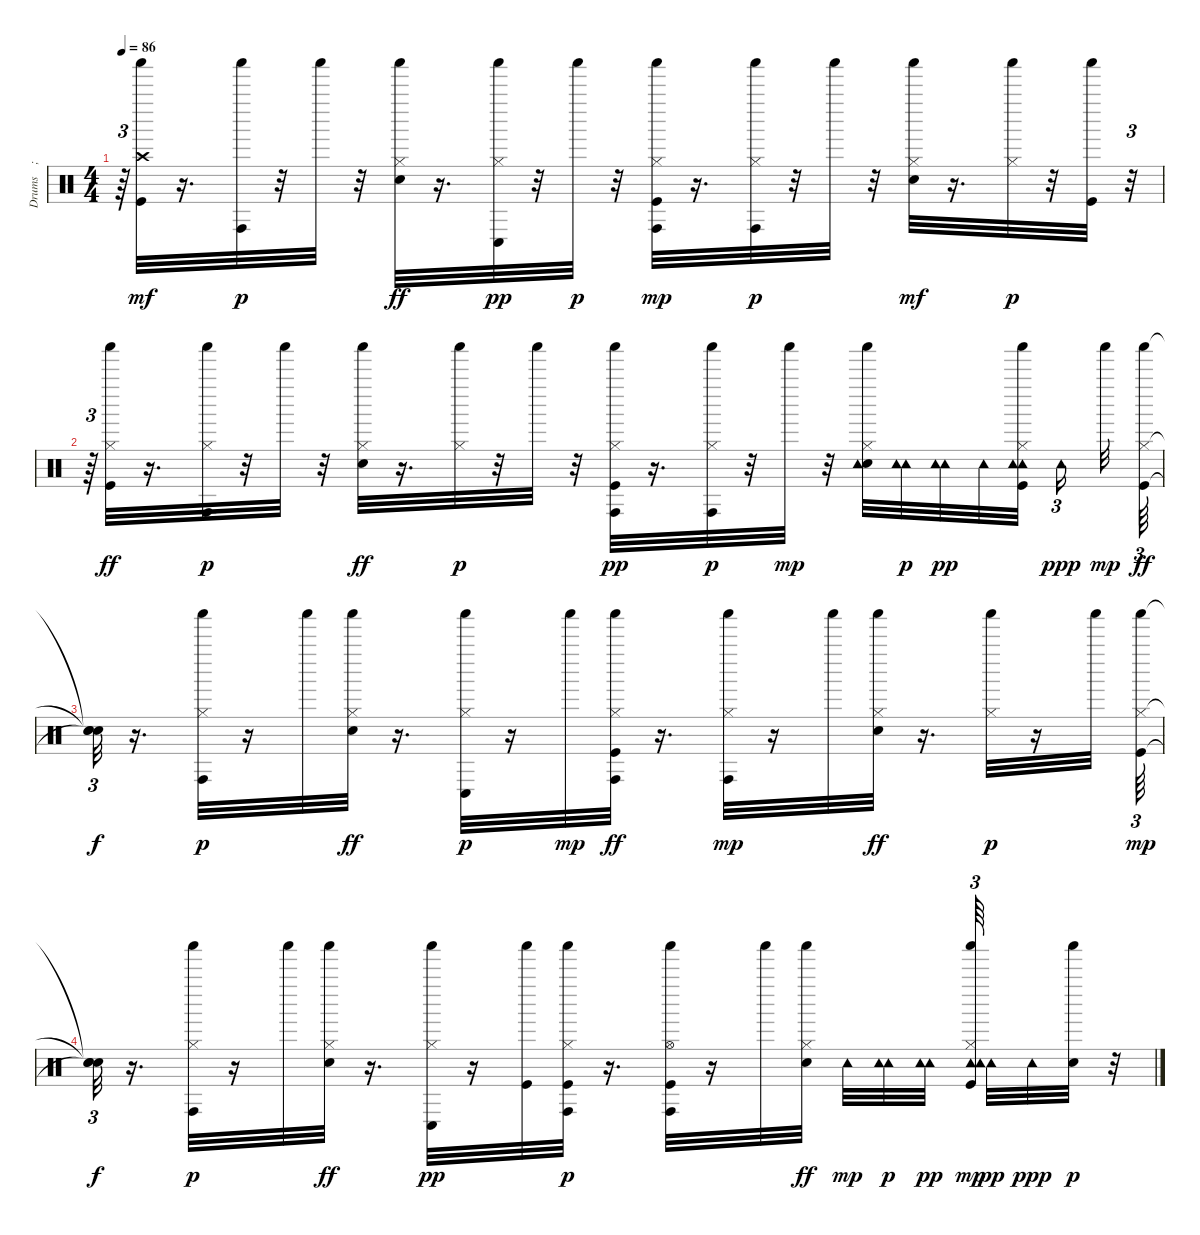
\track ("Drums    ; Standard" "Drums    ;") {instrument percussion}
\staff {score}
\articulation defaults
\ts (4 4)
\tempo 86
\clef neutral
\ks c
r.64{tu (3 2) dy p} ("Crash high (hit)" "Kick (hit)" "Shaker (hit)").32{dy mf} r.16{d} ("Shaker (hit)" "Conga high (hit)").32{dy p} r.32 "Shaker (hit)".32 r.32 ("Electric Snare (hit)" "Shaker (hit)" "Hi-Hat (closed)").32{dy ff} r.16{d} ("Shaker (hit)" "Hi-Hat (closed)" "Conga low (hit)").32{dy pp} r.32 "Shaker (hit)".32{dy p} r.32 ("Kick (hit)" "Shaker (hit)" "Conga high (hit)" "Hi-Hat (closed)").32{dy mp} r.16{d} ("Conga high (hit)" "Shaker (hit)" "Hi-Hat (closed)").32{dy p} r.32 "Shaker (hit)".32 r.32 ("Electric Snare (hit)" "Shaker (hit)" "Hi-Hat (closed)").32{dy mf} r.16{d} ("Hi-Hat (closed)" "Shaker (hit)").32{dy p} r.32 ("Shaker (hit)" "Kick (hit)").32 r.32{tu (3 2)} |
r.64{tu (3 2)} ("Kick (hit)" "Shaker (hit)" "Hi-Hat (closed)").32{dy ff} r.16{d} ("Shaker (hit)" "Hi-Hat (closed)" "Conga high (hit)").32{dy p} r.32 "Shaker (hit)".32 r.32 ("Electric Snare (hit)" "Hi-Hat (closed)" "Shaker (hit)").32{dy ff} r.16{d} ("Hi-Hat (closed)" "Shaker (hit)").32{dy p} r.32 "Shaker (hit)".32 r.32 ("Kick (hit)" "Hi-Hat (closed)" "Shaker (hit)" "Conga high (hit)").32{dy pp} r.16{d} ("Hi-Hat (closed)" "Conga high (hit)" "Shaker (hit)").32{dy p} r.32 "Shaker (hit)".32{dy mp} r.32 ("Hi-Hat (closed)" "Electric Snare (hit)" "Shaker (hit)" "Tambourine (hit)").32 ("Tambourine (hit)" "Tambourine (hit)").32{dy p} ("Tambourine (hit)" "Tambourine (hit)").32{dy pp} "Tambourine (hit)".32 ("Tambourine (hit)" "Hi-Hat (closed)" "Shaker (hit)" "Kick (hit)" "Tambourine (hit)").32 "Tambourine (hit)".16{tu (3 2) dy ppp} "Shaker (hit)".32{dy mp} ("Kick (hit)" "Shaker (hit)" "Hi-Hat (closed)").64{tu (3 2) dy ff} |
("Snare (hit)"{t} "Snare (hit)"{t} "Snare (hit)"{t}).32{tu (3 2) dy f} r.16{d} ("Conga high (hit)" "Shaker (hit)" "Hi-Hat (closed)").32{dy p} r.16 "Shaker (hit)".32 ("Electric Snare (hit)" "Shaker (hit)" "Hi-Hat (closed)").32{dy ff} r.16{d} ("Conga low (hit)" "Shaker (hit)" "Hi-Hat (closed)").32{dy p} r.16 "Shaker (hit)".32{dy mp} ("Kick (hit)" "Conga high (hit)" "Shaker (hit)" "Hi-Hat (closed)").32{dy ff} r.16{d} ("Conga high (hit)" "Shaker (hit)" "Hi-Hat (closed)").32{dy mp} r.16 "Shaker (hit)".32 ("Electric Snare (hit)" "Shaker (hit)" "Hi-Hat (closed)").32{dy ff} r.16{d} ("Shaker (hit)" "Hi-Hat (closed)").32{dy p} r.16 "Shaker (hit)".32 ("Shaker (hit)" "Kick (hit)" "Hi-Hat (closed)").64{tu (3 2) dy mp} |
("Snare (hit)"{t} "Snare (hit)"{t} "Snare (hit)"{t}).32{tu (3 2) dy f} r.16{d} ("Shaker (hit)" "Conga high (hit)" "Hi-Hat (closed)").32{dy p} r.16 "Shaker (hit)".32 ("Electric Snare (hit)" "Shaker (hit)" "Hi-Hat (closed)").32{dy ff} r.16{d} ("Shaker (hit)" "Conga low (hit)" "Hi-Hat (closed)").32{dy pp} r.16 ("Shaker (hit)" "Kick (hit)").32 ("Kick (hit)" "Shaker (hit)" "Hi-Hat (closed)" "Conga high (hit)").32{dy p} r.16{d} ("Kick (hit)" "Hi-Hat (open)" "Shaker (hit)" "Conga high (hit)").32 r.16 "Shaker (hit)".32 ("Electric Snare (hit)" "Hi-Hat (closed)" "Shaker (hit)").32{dy ff} "Tambourine (hit)".32{dy mp} ("Tambourine (hit)" "Tambourine (hit)").32{dy p} ("Tambourine (hit)" "Tambourine (hit)").32{dy pp} ("Tambourine (hit)" "Tambourine (hit)" "Shaker (hit)" "Hi-Hat (closed)" "Kick (hit)").64{tu (3 2) dy mp} "Tambourine (hit)".32{dy pp} "Tambourine (hit)".32{dy ppp} ("Electric Snare (hit)" "Shaker (hit)").32{dy p} r.32
